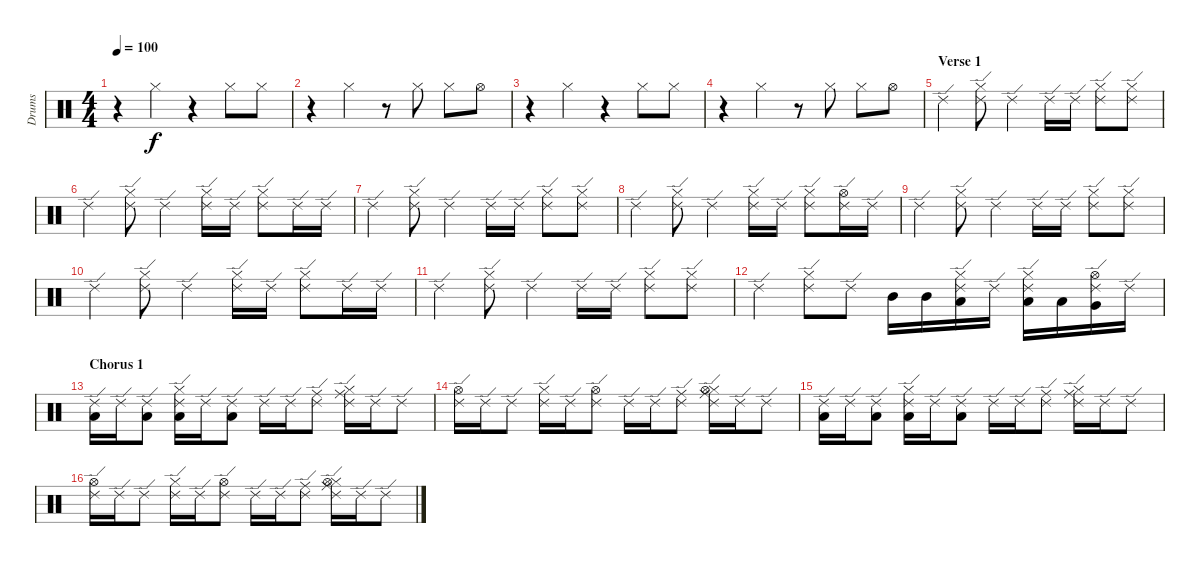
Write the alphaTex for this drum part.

\track ("Drums" "Drums") {instrument percussion}
\staff {score}
\articulation defaults
\ts (4 4)
\tempo 100
\clef neutral
\ks c
r.4{dy f volume 12} "Hi-Hat (closed)".4 r.4 "Hi-Hat (closed)".8 "Hi-Hat (closed)".8 |
r.4 "Hi-Hat (closed)".4 r.8 "Hi-Hat (closed)".8 "Hi-Hat (closed)".8 "Hi-Hat (open)".8 |
r.4 "Hi-Hat (closed)".4 r.4 "Hi-Hat (closed)".8 "Hi-Hat (closed)".8 |
r.4 "Hi-Hat (closed)".4 r.8 "Hi-Hat (closed)".8 "Hi-Hat (closed)".8 "Hi-Hat (open)".8 |
\section ("" "Verse 1")
"Ride (edge) 2".4 ("Ride (edge) 2" "Hi-Hat (closed)").8 "Ride (edge) 2".4 "Ride (edge) 2".16 "Ride (edge) 2".16 ("Ride (edge) 2" "Hi-Hat (closed)").8 ("Ride (edge) 2" "Hi-Hat (closed)").8 |
"Ride (edge) 2".4 ("Ride (edge) 2" "Hi-Hat (closed)").8 "Ride (edge) 2".4 ("Ride (edge) 2" "Hi-Hat (closed)").16 "Ride (edge) 2".16 ("Ride (edge) 2" "Hi-Hat (closed)").8 "Ride (edge) 2".16 "Ride (edge) 2".16 |
"Ride (edge) 2".4 ("Ride (edge) 2" "Hi-Hat (closed)").8 "Ride (edge) 2".4 "Ride (edge) 2".16 "Ride (edge) 2".16 ("Ride (edge) 2" "Hi-Hat (closed)").8 ("Ride (edge) 2" "Hi-Hat (closed)").8 |
"Ride (edge) 2".4 ("Ride (edge) 2" "Hi-Hat (closed)").8 "Ride (edge) 2".4 ("Ride (edge) 2" "Hi-Hat (closed)").16 "Ride (edge) 2".16 ("Ride (edge) 2" "Hi-Hat (closed)").8 ("Ride (edge) 2" "Hi-Hat (open)").16 "Ride (edge) 2".16 |
"Ride (edge) 2".4 ("Ride (edge) 2" "Hi-Hat (closed)").8 "Ride (edge) 2".4 "Ride (edge) 2".16 "Ride (edge) 2".16 ("Ride (edge) 2" "Hi-Hat (closed)").8 ("Ride (edge) 2" "Hi-Hat (closed)").8 |
"Ride (edge) 2".4 ("Ride (edge) 2" "Hi-Hat (closed)").8 "Ride (edge) 2".4 ("Ride (edge) 2" "Hi-Hat (closed)").16 "Ride (edge) 2".16 ("Ride (edge) 2" "Hi-Hat (closed)").8 "Ride (edge) 2".16 "Ride (edge) 2".16 |
"Ride (edge) 2".4 ("Ride (edge) 2" "Hi-Hat (closed)").8 "Ride (edge) 2".4 "Ride (edge) 2".16 "Ride (edge) 2".16 ("Ride (edge) 2" "Hi-Hat (closed)").8 ("Ride (edge) 2" "Hi-Hat (closed)").8 |
"Ride (edge) 2".4 ("Ride (edge) 2" "Hi-Hat (closed)").8 "Ride (edge) 2".8 "Mid Tom (hit)".16 "Mid Tom (hit)".16 ("Ride (edge) 2" "Hi-Hat (closed)" "Low Tom (hit)").16 "Ride (edge) 2".16 ("Ride (edge) 2" "Hi-Hat (closed)" "Low Tom (hit)").16 "Low Tom (hit)".16 ("Ride (edge) 2" "Hi-Hat (open)" "Very Low Tom (hit)").16 "Ride (edge) 2".16 |
\section ("" "Chorus 1")
("Ride (edge) 2" "Low Tom (hit)").16 "Ride (edge) 2".16 ("Ride (edge) 2" "Low Tom (hit)").8 ("Ride (edge) 2" "Hi-Hat (closed)" "Low Tom (hit)").16 "Ride (edge) 2".16 ("Ride (edge) 2" "Low Tom (hit)").8 "Ride (edge) 2".16 "Ride (edge) 2".16 ("Ride (edge) 2" "Ride (middle)").8 ("Ride (edge) 2" "Hi-Hat (closed)" "Ride (middle)").16 "Ride (edge) 2".16 "Ride (edge) 2".8 |
("Ride (edge) 2" "Hi-Hat (open)").16 "Ride (edge) 2".16 "Ride (edge) 2".8 ("Ride (edge) 2" "Hi-Hat (closed)").16 "Ride (edge) 2".16 ("Ride (edge) 2" "Hi-Hat (open)").8 "Ride (edge) 2".16 "Ride (edge) 2".16 ("Ride (edge) 2" "Ride (middle)").8 ("Ride (edge) 2" "Hi-Hat (closed)" "Ride (middle)" "Hi-Hat (open)").16 "Ride (edge) 2".16 "Ride (edge) 2".8 |
("Ride (edge) 2" "Low Tom (hit)").16 "Ride (edge) 2".16 ("Ride (edge) 2" "Low Tom (hit)").8 ("Ride (edge) 2" "Hi-Hat (closed)" "Low Tom (hit)").16 "Ride (edge) 2".16 ("Ride (edge) 2" "Low Tom (hit)").8 "Ride (edge) 2".16 "Ride (edge) 2".16 ("Ride (edge) 2" "Ride (middle)").8 ("Ride (edge) 2" "Hi-Hat (closed)" "Ride (middle)").16 "Ride (edge) 2".16 "Ride (edge) 2".8 |
("Ride (edge) 2" "Hi-Hat (open)").16 "Ride (edge) 2".16 "Ride (edge) 2".8 ("Ride (edge) 2" "Hi-Hat (closed)").16 "Ride (edge) 2".16 ("Ride (edge) 2" "Hi-Hat (open)").8 "Ride (edge) 2".16 "Ride (edge) 2".16 ("Ride (edge) 2" "Ride (middle)").8 ("Ride (edge) 2" "Hi-Hat (closed)" "Ride (middle)" "Hi-Hat (open)").16 "Ride (edge) 2".16 "Ride (edge) 2".8
